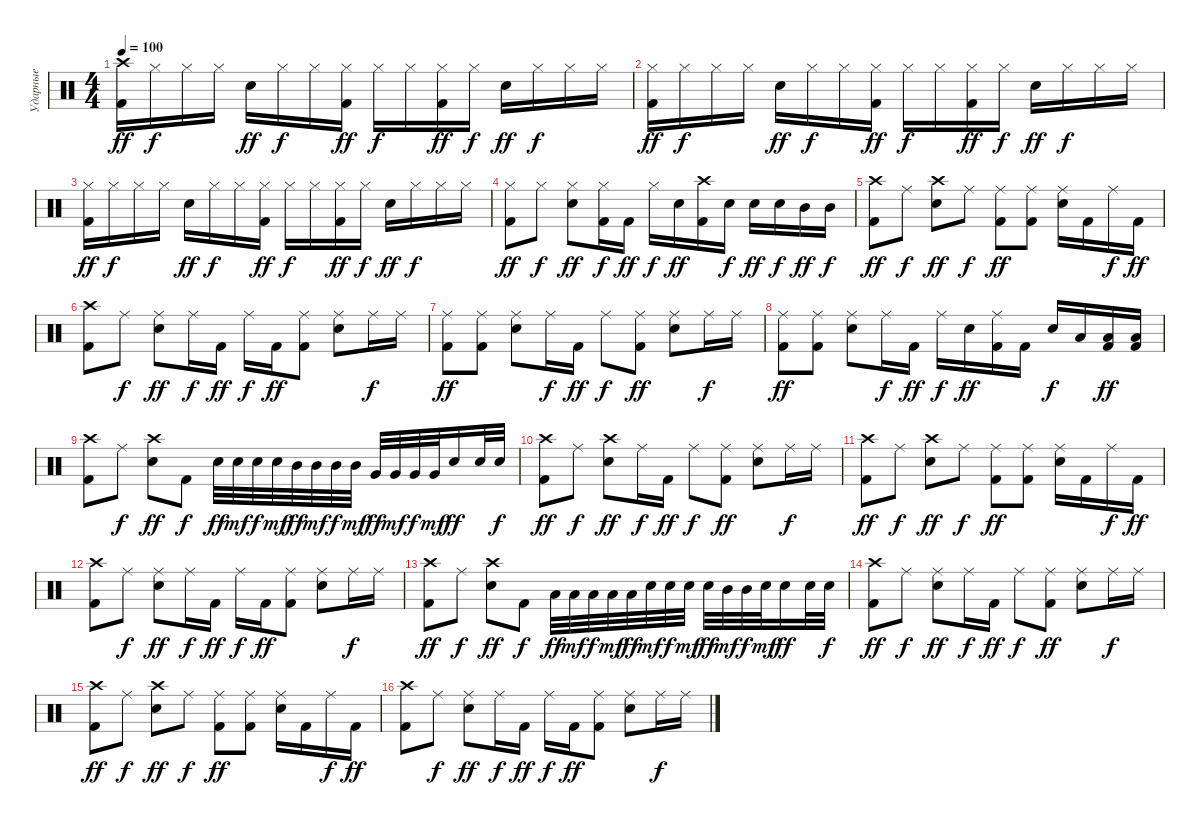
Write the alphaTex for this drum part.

\track ("Ударные" "Ударные") {instrument percussion}
\staff {score}
\articulation defaults
\ts (4 4)
\tempo 100
\clef neutral
\ks c
("Crash high (hit)" "Kick (hit) 2").16{dy ff} "Hi-Hat (closed)".16{dy f} "Hi-Hat (closed)".16 "Hi-Hat (closed)".16 "Snare (hit) 2".16{dy ff} "Hi-Hat (closed)".16{dy f} "Hi-Hat (closed)".16 ("Hi-Hat (closed)" "Kick (hit) 2").16{dy ff} "Hi-Hat (closed)".16{dy f} "Hi-Hat (closed)".16 ("Hi-Hat (closed)" "Kick (hit) 2").16{dy ff} "Hi-Hat (closed)".16{dy f} "Snare (hit) 2".16{dy ff} "Hi-Hat (closed)".16{dy f} "Hi-Hat (closed)".16 "Hi-Hat (closed)".16 |
("Hi-Hat (closed)" "Kick (hit) 2").16{dy ff} "Hi-Hat (closed)".16{dy f} "Hi-Hat (closed)".16 "Hi-Hat (closed)".16 "Snare (hit) 2".16{dy ff} "Hi-Hat (closed)".16{dy f} "Hi-Hat (closed)".16 ("Hi-Hat (closed)" "Kick (hit) 2").16{dy ff} "Hi-Hat (closed)".16{dy f} "Hi-Hat (closed)".16 ("Hi-Hat (closed)" "Kick (hit) 2").16{dy ff} "Hi-Hat (closed)".16{dy f} "Snare (hit) 2".16{dy ff} "Hi-Hat (closed)".16{dy f} "Hi-Hat (closed)".16 "Hi-Hat (closed)".16 |
("Hi-Hat (closed)" "Kick (hit) 2").16{dy ff} "Hi-Hat (closed)".16{dy f} "Hi-Hat (closed)".16 "Hi-Hat (closed)".16 "Snare (hit) 2".16{dy ff} "Hi-Hat (closed)".16{dy f} "Hi-Hat (closed)".16 ("Hi-Hat (closed)" "Kick (hit) 2").16{dy ff} "Hi-Hat (closed)".16{dy f} "Hi-Hat (closed)".16 ("Hi-Hat (closed)" "Kick (hit) 2").16{dy ff} "Hi-Hat (closed)".16{dy f} "Snare (hit) 2".16{dy ff} "Hi-Hat (closed)".16{dy f} "Hi-Hat (closed)".16 "Hi-Hat (closed)".16 |
("Hi-Hat (closed)" "Kick (hit) 2").8{dy ff} "Hi-Hat (closed)".8{dy f} ("Hi-Hat (closed)" "Snare (hit) 2").8{dy ff} ("Hi-Hat (closed)" "Kick (hit) 2").16{dy f} "Kick (hit) 2".16{dy ff} "Hi-Hat (closed)".16{dy f} "Snare (hit) 2".16{dy ff} ("Crash high (hit)" "Kick (hit) 2").16 "Snare (hit) 2".16{dy f} "Snare (hit) 2".16{dy ff} "Snare (hit) 2".16{dy f} "Mid Tom (hit)".16{dy ff} "Mid Tom (hit)".16{dy f} |
("Crash high (hit)" "Kick (hit) 2").8{dy ff} "Ride (middle)".8{dy f} ("Crash high (hit)" "Snare (hit) 2").8{dy ff} "Ride (middle)".8{dy f} ("Ride (middle)" "Kick (hit) 2").8{dy ff} ("Ride (middle)" "Kick (hit) 2").8 ("Ride (middle)" "Snare (hit) 2").16 "Kick (hit) 2".16 "Ride (middle)".16{dy f} "Kick (hit) 2".16{dy ff} |
("Crash high (hit)" "Kick (hit) 2").8 "Ride (middle)".8{dy f} ("Ride (middle)" "Snare (hit) 2").8{dy ff} "Ride (middle)".16{dy f} "Kick (hit) 2".16{dy ff} "Ride (middle)".16{dy f} "Kick (hit) 2".16{dy ff} ("Ride (middle)" "Kick (hit) 2").8 ("Ride (middle)" "Snare (hit) 2").8 "Ride (middle)".16{dy f} "Ride (middle)".16 |
("Ride (middle)" "Kick (hit) 2").8{dy ff} ("Ride (middle)" "Kick (hit) 2").8 ("Ride (middle)" "Snare (hit) 2").8 "Ride (middle)".16{dy f} "Kick (hit) 2".16{dy ff} "Ride (middle)".8{dy f} ("Ride (middle)" "Kick (hit) 2").8{dy ff} ("Ride (middle)" "Snare (hit) 2").8 "Ride (middle)".16{dy f} "Ride (middle)".16 |
("Ride (middle)" "Kick (hit) 2").8{dy ff} ("Ride (middle)" "Kick (hit) 2").8 ("Ride (middle)" "Snare (hit) 2").8 "Ride (middle)".16{dy f} "Kick (hit) 2".16{dy ff} "Ride (middle)".16{dy f} "Snare (hit) 2".16{dy ff} ("Ride (middle)" "Kick (hit) 2").16 "Kick (hit) 2".16 "Snare (hit) 2".16{dy f} "Low Floor Tom (hit)".16 ("Low Floor Tom (hit)" "Kick (hit) 2").16{dy ff} ("Low Floor Tom (hit)" "Kick (hit) 2").16 |
("Crash high (hit)" "Kick (hit) 2").8 "Ride (middle)".8{dy f} ("Crash high (hit)" "Snare (hit) 2").8{dy ff} "Kick (hit) 2".8{dy f} "Snare (hit) 2".32{dy ff} "Snare (hit) 2".32{dy mf} "Snare (hit) 2".32{dy f} "Snare (hit) 2".32{dy mf} "Mid Tom (hit)".32{dy ff} "Mid Tom (hit)".32{dy mf} "Mid Tom (hit)".32{dy f} "Mid Tom (hit)".32{dy mf} "Very Low Tom (hit)".32{dy ff} "Very Low Tom (hit)".32{dy mf} "Very Low Tom (hit)".32{dy f} "Very Low Tom (hit)".32{dy mf} "Snare (hit) 2".16{dy ff} "Snare (hit) 2".32 "Snare (hit) 2".32{dy f} |
("Crash high (hit)" "Kick (hit) 2").8{dy ff} "Ride (middle)".8{dy f} ("Crash high (hit)" "Snare (hit) 2").8{dy ff} "Ride (middle)".16{dy f} "Kick (hit) 2".16{dy ff} "Ride (middle)".8{dy f} ("Ride (middle)" "Kick (hit) 2").8{dy ff} ("Ride (middle)" "Snare (hit) 2").8 "Ride (middle)".16{dy f} "Ride (middle)".16 |
("Crash high (hit)" "Kick (hit) 2").8{dy ff} "Ride (middle)".8{dy f} ("Crash high (hit)" "Snare (hit) 2").8{dy ff} "Ride (middle)".8{dy f} ("Ride (middle)" "Kick (hit) 2").8{dy ff} ("Ride (middle)" "Kick (hit) 2").8 ("Ride (middle)" "Snare (hit) 2").16 "Kick (hit) 2".16 "Ride (middle)".16{dy f} "Kick (hit) 2".16{dy ff} |
("Crash high (hit)" "Kick (hit) 2").8 "Ride (middle)".8{dy f} ("Ride (middle)" "Snare (hit) 2").8{dy ff} "Ride (middle)".16{dy f} "Kick (hit) 2".16{dy ff} "Ride (middle)".16{dy f} "Kick (hit) 2".16{dy ff} ("Ride (middle)" "Kick (hit) 2").8 ("Ride (middle)" "Snare (hit) 2").8 "Ride (middle)".16{dy f} "Ride (middle)".16 |
("Crash high (hit)" "Kick (hit) 2").8{dy ff} "Ride (middle)".8{dy f} ("Crash high (hit)" "Snare (hit) 2").8{dy ff} "Kick (hit) 2".8{dy f} "Low Floor Tom (hit)".32{dy ff} "Low Floor Tom (hit)".32{dy mf} "Low Floor Tom (hit)".32{dy f} "Low Floor Tom (hit)".32{dy mf} "Low Floor Tom (hit)".32{dy ff} "Snare (hit) 2".32{dy mf} "Snare (hit) 2".32{dy f} "Snare (hit) 2".32{dy mf} "Snare (hit) 2".32{dy ff} "Mid Tom (hit)".32{dy mf} "Mid Tom (hit)".32{dy f} "Snare (hit) 2".32{dy mf} "Snare (hit) 2".16{dy ff} "Snare (hit) 2".32 "Snare (hit) 2".32{dy f} |
("Crash high (hit)" "Kick (hit) 2").8{dy ff} "Ride (middle)".8{dy f} ("Ride (middle)" "Snare (hit) 2").8{dy ff} "Ride (middle)".16{dy f} "Kick (hit) 2".16{dy ff} "Ride (middle)".8{dy f} ("Ride (middle)" "Kick (hit) 2").8{dy ff} ("Ride (middle)" "Snare (hit) 2").8 "Ride (middle)".16{dy f} "Ride (middle)".16 |
("Crash high (hit)" "Kick (hit) 2").8{dy ff} "Ride (middle)".8{dy f} ("Crash high (hit)" "Snare (hit) 2").8{dy ff} "Ride (middle)".8{dy f} ("Ride (middle)" "Kick (hit) 2").8{dy ff} ("Ride (middle)" "Kick (hit) 2").8 ("Ride (middle)" "Snare (hit) 2").16 "Kick (hit) 2".16 "Ride (middle)".16{dy f} "Kick (hit) 2".16{dy ff} |
("Crash high (hit)" "Kick (hit) 2").8 "Ride (middle)".8{dy f} ("Ride (middle)" "Snare (hit) 2").8{dy ff} "Ride (middle)".16{dy f} "Kick (hit) 2".16{dy ff} "Ride (middle)".16{dy f} "Kick (hit) 2".16{dy ff} ("Ride (middle)" "Kick (hit) 2").8 ("Ride (middle)" "Snare (hit) 2").8 "Ride (middle)".16{dy f} "Ride (middle)".16
